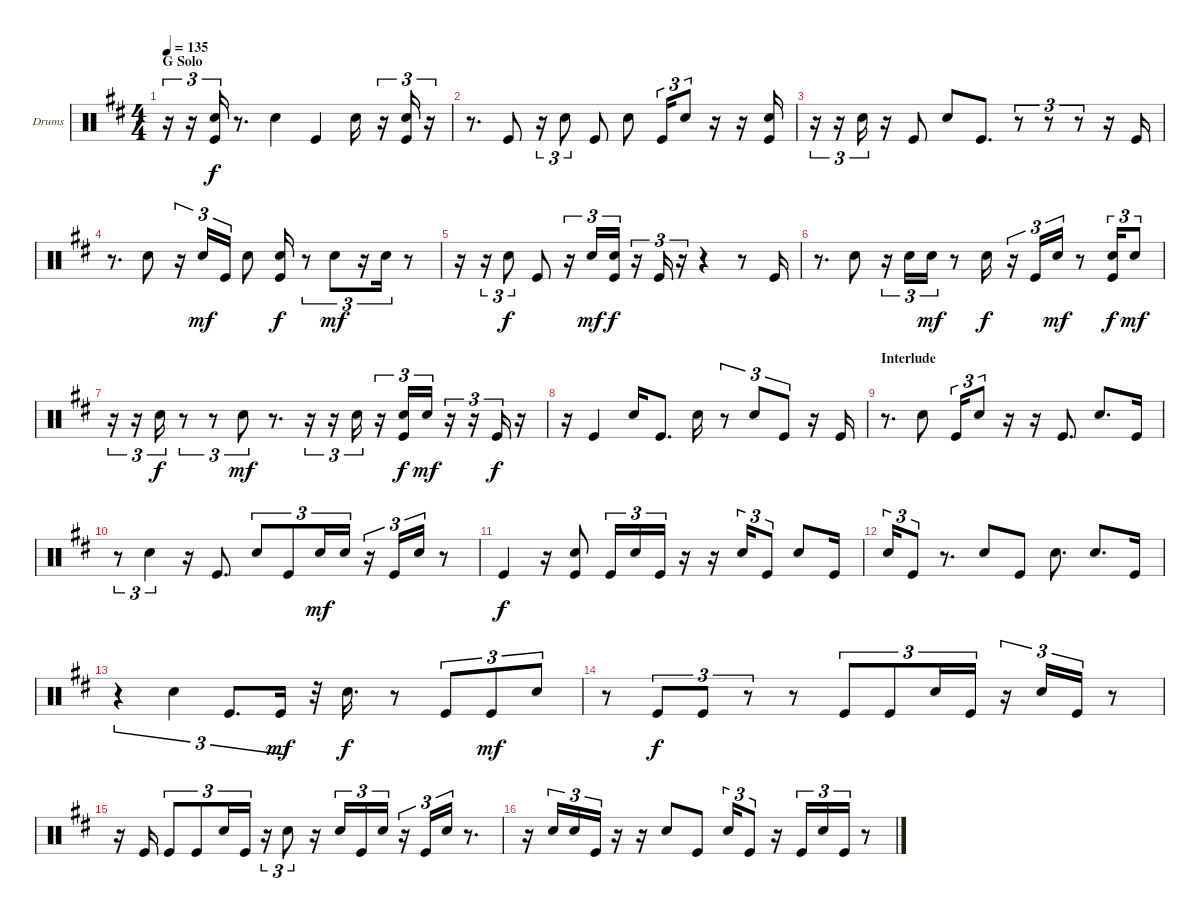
\bracketExtendMode groupsimilarinstruments
\firstSystemTrackNameOrientation horizontal
\otherSystemsTrackNameOrientation horizontal
\track ("Kick" "Drums") {instrument percussion}
\staff {score}
\articulation defaults
\ts (4 4)
\section ("" "G Solo")
\tempo 135
\clef neutral
\ks d
r.16{tu (3 2) dy f} r.16{tu (3 2)} ("Kick (hit)" "Snare (hit) 2").16{tu (3 2)} r.8{d} "Snare (hit) 2".4 "Kick (hit)".4 "Snare (hit) 2".16 r.16{tu (3 2)} ("Kick (hit)" "Snare (hit) 2").16{tu (3 2)} r.16{tu (3 2)} |
r.8{d} "Kick (hit)".8 r.16{tu (3 2)} "Snare (hit) 2".8{tu (3 2)} "Kick (hit)".8 "Snare (hit) 2".8 "Kick (hit)".16{tu (3 2)} "Snare (hit) 2".8{tu (3 2)} r.16 r.16 ("Kick (hit)" "Snare (hit) 2").16 |
r.16{tu (3 2)} r.16{tu (3 2)} "Snare (hit) 2".16{tu (3 2)} r.16 "Kick (hit)".8 "Snare (hit) 2".8 "Kick (hit)".8{d} r.8{tu (3 2)} r.8{tu (3 2)} r.8{tu (3 2)} r.16 "Kick (hit)".16 |
r.8{d} "Snare (hit) 2".8 r.16{tu (3 2)} "Snare (hit) 2".16{tu (3 2) dy mf} "Kick (hit)".16{tu (3 2)} "Snare (hit) 2".8 ("Kick (hit)" "Snare (hit) 2").16{dy f} r.8{tu (3 2)} "Snare (hit) 2".8{tu (3 2) dy mf} r.16{tu (3 2)} "Snare (hit) 2".16{tu (3 2)} r.8 |
r.16 r.16{tu (3 2)} "Snare (hit) 2".8{tu (3 2) dy f} "Kick (hit)".8 r.16{tu (3 2)} "Snare (hit) 2".16{tu (3 2) dy mf} ("Snare (hit) 2" "Kick (hit)").16{tu (3 2) dy f} r.16{tu (3 2)} "Kick (hit)".16{tu (3 2)} r.16{tu (3 2)} r.4 r.8 "Kick (hit)".16 |
r.8{d} "Snare (hit) 2".8 r.16{tu (3 2)} "Snare (hit) 2".16{tu (3 2)} "Snare (hit) 2".16{tu (3 2) dy mf} r.8 "Snare (hit) 2".16{dy f} r.16{tu (3 2)} "Kick (hit)".16{tu (3 2)} "Snare (hit) 2".16{tu (3 2) dy mf} r.8 ("Kick (hit)" "Snare (hit) 2").16{tu (3 2) dy f} "Snare (hit) 2".8{tu (3 2) dy mf} |
\scale
0.512144 r.16{tu (3 2)} r.16{tu (3 2)} "Snare (hit) 2".16{tu (3 2) dy f} r.8{tu (3 2)} r.8{tu (3 2)} "Snare (hit) 2".8{tu (3 2) dy mf} r.8{d} r.16{tu (3 2)} r.16{tu (3 2)} "Snare (hit) 2".16{tu (3 2)} r.16{tu (3 2)} ("Kick (hit)" "Snare (hit) 2").16{tu (3 2) dy f} "Snare (hit) 2".16{tu (3 2) dy mf} r.16{tu (3 2)} r.16{tu (3 2)} "Kick (hit)".16{tu (3 2) dy f} r.16 |
\scale
0.487785 r.16 "Kick (hit)".4 "Snare (hit) 2".16 "Kick (hit)".8{d} "Snare (hit) 2".16 r.8{tu (3 2)} "Snare (hit) 2".8{tu (3 2)} "Kick (hit)".8{tu (3 2)} r.16 "Kick (hit)".16 |
\section ("" "Interlude")
r.8{d} "Snare (hit) 2".8 "Kick (hit)".16{tu (3 2)} "Snare (hit) 2".8{tu (3 2)} r.16 r.16 "Kick (hit)".8{d} "Snare (hit) 2".8{d} "Kick (hit)".16 |
r.8{tu (3 2)} "Snare (hit) 2".4{tu (3 2)} r.16 "Kick (hit)".8{d} "Snare (hit) 2".8{tu (3 2)} "Kick (hit)".8{tu (3 2)} "Snare (hit) 2".16{tu (3 2) dy mf} "Snare (hit) 2".16{tu (3 2)} r.16{tu (3 2)} "Kick (hit)".16{tu (3 2)} "Snare (hit) 2".16{tu (3 2)} r.8 |
"Kick (hit)".4{dy f} r.16 ("Kick (hit)" "Snare (hit) 2").8 "Kick (hit)".16{tu (3 2)} "Snare (hit) 2".16{tu (3 2)} "Kick (hit)".16{tu (3 2)} r.16 r.16 "Snare (hit) 2".16{tu (3 2)} "Kick (hit)".8{tu (3 2)} "Snare (hit) 2".8 "Kick (hit)".16 |
"Snare (hit) 2".16{tu (3 2)} "Kick (hit)".8{tu (3 2)} r.8{d} "Snare (hit) 2".8 "Kick (hit)".8 "Snare (hit) 2".8{d} "Snare (hit) 2".8{d} "Kick (hit)".16 |
r.4{tu (3 2)} "Snare (hit) 2".4{tu (3 2)} "Kick (hit)".8{d tu (3 2)} "Kick (hit)".16{tu (3 2) dy mf} r.32 "Snare (hit) 2".16{d dy f} r.8 "Kick (hit)".8{tu (3 2)} "Kick (hit)".8{tu (3 2) dy mf} "Snare (hit) 2".8{tu (3 2)} |
r.8 "Kick (hit)".8{tu (3 2) dy f} "Kick (hit)".8{tu (3 2)} r.8{tu (3 2)} r.8 "Kick (hit)".8{tu (3 2)} "Kick (hit)".8{tu (3 2)} "Snare (hit) 2".16{tu (3 2)} "Kick (hit)".16{tu (3 2)} r.16{tu (3 2)} "Snare (hit) 2".16{tu (3 2)} "Kick (hit)".16{tu (3 2)} r.8 |
r.16 "Kick (hit)".16 "Kick (hit)".8{tu (3 2)} "Kick (hit)".8{tu (3 2)} "Snare (hit) 2".16{tu (3 2)} "Kick (hit)".16{tu (3 2)} r.16{tu (3 2)} "Snare (hit) 2".8{tu (3 2)} r.16 "Snare (hit) 2".16{tu (3 2)} "Kick (hit)".16{tu (3 2)} "Snare (hit) 2".16{tu (3 2)} r.16{tu (3 2)} "Kick (hit)".16{tu (3 2)} "Snare (hit) 2".16{tu (3 2)} r.8{d} |
r.16 "Snare (hit) 2".16{tu (3 2)} "Snare (hit) 2".16{tu (3 2)} "Kick (hit)".16{tu (3 2)} r.16 r.16 "Snare (hit) 2".8 "Kick (hit)".8 "Snare (hit) 2".16{tu (3 2)} "Kick (hit)".8{tu (3 2)} r.16 "Kick (hit)".16{tu (3 2)} "Snare (hit) 2".16{tu (3 2)} "Kick (hit)".16{tu (3 2)} r.8
